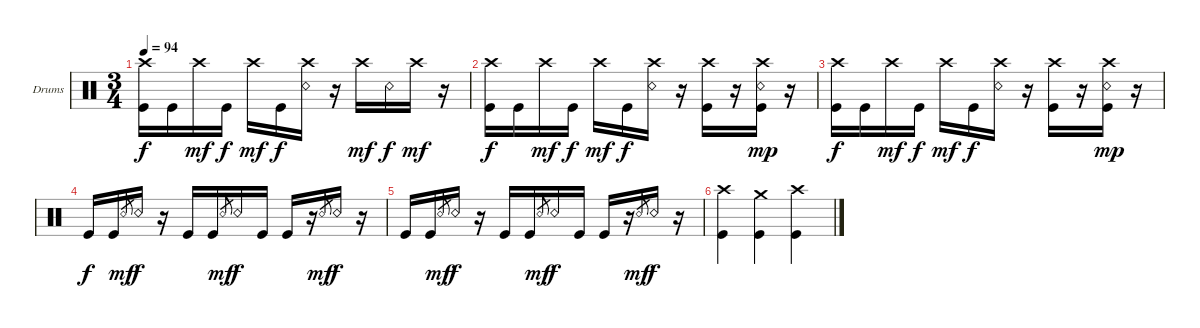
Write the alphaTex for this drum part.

\bracketExtendMode groupsimilarinstruments
\firstSystemTrackNameOrientation horizontal
\otherSystemsTrackNameOrientation horizontal
\track ("Drumkit" "Drums") {instrument percussion}
\staff {score}
\articulation defaults
\ts (3 4)
\tempo 94
\clef neutral
\ks c
("Kick (hit)" "Crash high (hit)").16{dy f} "Kick (hit)".16 "Crash high (hit)".16{dy mf} "Kick (hit)".16{dy f} "Crash high (hit)".16{dy mf} "Kick (hit)".16{dy f} ("Snare (rim shot)" "Crash high (hit)").16 r.16 "Crash high (hit)".16{dy mf} "Snare (rim shot)".16{dy f} "Crash high (hit)".16{dy mf} r.16 |
("Kick (hit)" "Crash high (hit)").16{dy f} "Kick (hit)".16 "Crash high (hit)".16{dy mf} "Kick (hit)".16{dy f} "Crash high (hit)".16{dy mf} "Kick (hit)".16{dy f} ("Snare (rim shot)" "Crash high (hit)").16 r.16 ("Kick (hit)" "Crash high (hit)").16 r.16 ("Kick (hit)" "Snare (rim shot)" "Crash high (hit)").16{dy mp} r.16 |
("Kick (hit)" "Crash high (hit)").16{dy f} "Kick (hit)".16 "Crash high (hit)".16{dy mf} "Kick (hit)".16{dy f} "Crash high (hit)".16{dy mf} "Kick (hit)".16{dy f} ("Snare (rim shot)" "Crash high (hit)").16 r.16 ("Kick (hit)" "Crash high (hit)").16 r.16 ("Kick (hit)" "Snare (rim shot)" "Crash high (hit)").16{dy mp} r.16 |
"Kick (hit)".16{dy f} "Kick (hit)".16 "Snare (rim shot)".8{gr dy mf} "Snare (rim shot)".16{dy f} r.16 "Kick (hit)".16 "Kick (hit)".16 "Snare (rim shot)".8{gr dy mf} "Snare (rim shot)".16{dy f} "Kick (hit)".16 "Kick (hit)".16 r.16 "Snare (rim shot)".8{gr dy mf} "Snare (rim shot)".16{dy f} r.16 |
"Kick (hit)".16 "Kick (hit)".16 "Snare (rim shot)".8{gr dy mf} "Snare (rim shot)".16{dy f} r.16 "Kick (hit)".16 "Kick (hit)".16 "Snare (rim shot)".8{gr dy mf} "Snare (rim shot)".16{dy f} "Kick (hit)".16 "Kick (hit)".16 r.16 "Snare (rim shot)".8{gr dy mf} "Snare (rim shot)".16{dy f} r.16 |
("Kick (hit)" "Crash high (hit)").4 ("Kick (hit)" "Crash medium (hit)").4 ("Kick (hit)" "Crash high (hit)").4
